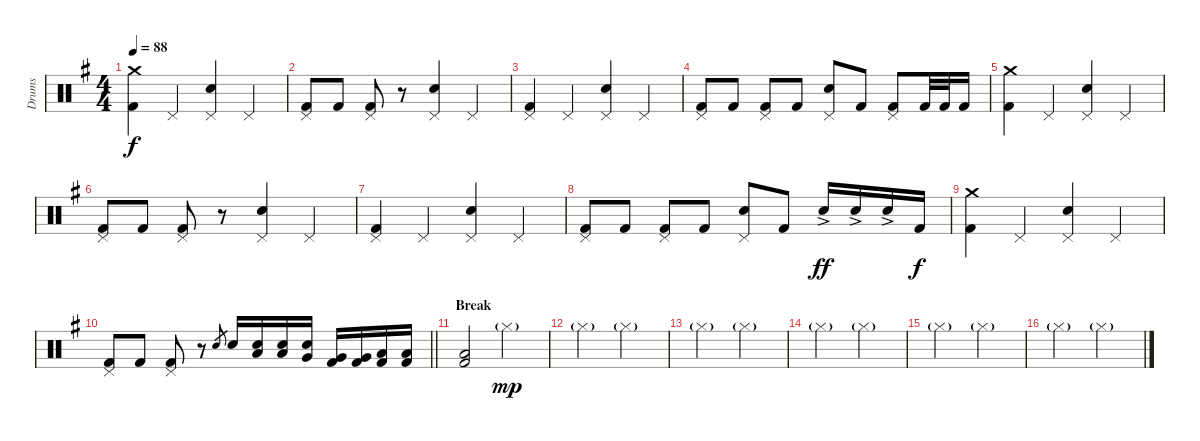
\track ("Drums" "Drums") {instrument percussion}
\staff {score}
\articulation defaults
\ts (4 4)
\tempo 88
\clef neutral
\ks g
("Crash medium (hit)" "Kick (hit) 2").4{dy f} "Pedal Hi-Hat (hit)".4 ("Pedal Hi-Hat (hit)" "Electric Snare (hit)").4 "Pedal Hi-Hat (hit)".4 |
("Pedal Hi-Hat (hit)" "Kick (hit) 2").8 "Kick (hit) 2".8 ("Pedal Hi-Hat (hit)" "Kick (hit) 2").8 r.8 ("Pedal Hi-Hat (hit)" "Electric Snare (hit)").4 "Pedal Hi-Hat (hit)".4 |
("Pedal Hi-Hat (hit)" "Kick (hit) 2").4 "Pedal Hi-Hat (hit)".4 ("Pedal Hi-Hat (hit)" "Electric Snare (hit)").4 "Pedal Hi-Hat (hit)".4 |
("Pedal Hi-Hat (hit)" "Kick (hit) 2").8 "Kick (hit) 2".8 ("Pedal Hi-Hat (hit)" "Kick (hit) 2").8 "Kick (hit) 2".8 ("Pedal Hi-Hat (hit)" "Electric Snare (hit)").8 "Kick (hit) 2".8 ("Pedal Hi-Hat (hit)" "Kick (hit) 2").8 "Kick (hit) 2".32 "Kick (hit) 2".32 "Kick (hit) 2".16 |
("Crash medium (hit)" "Kick (hit) 2").4 "Pedal Hi-Hat (hit)".4 ("Pedal Hi-Hat (hit)" "Electric Snare (hit)").4 "Pedal Hi-Hat (hit)".4 |
("Pedal Hi-Hat (hit)" "Kick (hit) 2").8 "Kick (hit) 2".8 ("Pedal Hi-Hat (hit)" "Kick (hit) 2").8 r.8 ("Pedal Hi-Hat (hit)" "Electric Snare (hit)").4 "Pedal Hi-Hat (hit)".4 |
("Pedal Hi-Hat (hit)" "Kick (hit) 2").4 "Pedal Hi-Hat (hit)".4 ("Pedal Hi-Hat (hit)" "Electric Snare (hit)").4 "Pedal Hi-Hat (hit)".4 |
("Pedal Hi-Hat (hit)" "Kick (hit) 2").8 "Kick (hit) 2".8 ("Pedal Hi-Hat (hit)" "Kick (hit) 2").8 "Kick (hit) 2".8 ("Pedal Hi-Hat (hit)" "Electric Snare (hit)").8 "Kick (hit) 2".8 "Electric Snare (hit)"{ac}.16{dy ff} "Electric Snare (hit)"{ac}.16 "Electric Snare (hit)"{ac}.16 "Kick (hit) 2".16{dy f} |
("Crash medium (hit)" "Kick (hit) 2").4 "Pedal Hi-Hat (hit)".4 ("Pedal Hi-Hat (hit)" "Electric Snare (hit)").4 "Pedal Hi-Hat (hit)".4 |
\barLineRight lightlight
("Pedal Hi-Hat (hit)" "Kick (hit) 2").8 "Kick (hit) 2".8 ("Pedal Hi-Hat (hit)" "Kick (hit) 2").8 r.8 "Electric Snare (hit)".8{gr} "Electric Snare (hit)".16 ("Low Tom (hit)" "Electric Snare (hit)").16 ("Low Tom (hit)" "Electric Snare (hit)").16 ("Very Low Tom (hit)" "Electric Snare (hit)").16 ("Very Low Tom (hit)" "Kick (hit) 2").16 ("Very Low Tom (hit)" "Kick (hit) 2").16 ("Low Floor Tom (hit)" "Kick (hit) 2").16 ("Low Floor Tom (hit)" "Kick (hit) 2").16 |
\section ("" "Break")
("Low Floor Tom (hit)" "Kick (hit) 2").2{bd 240} "Hi-Hat (closed)"{g}.2{dy mp} |
"Hi-Hat (closed)"{g}.2 "Hi-Hat (closed)"{g}.2 |
"Hi-Hat (closed)"{g}.2 "Hi-Hat (closed)"{g}.2 |
"Hi-Hat (closed)"{g}.2 "Hi-Hat (closed)"{g}.2 |
"Hi-Hat (closed)"{g}.2 "Hi-Hat (closed)"{g}.2 |
"Hi-Hat (closed)"{g}.2 "Hi-Hat (closed)"{g}.2
